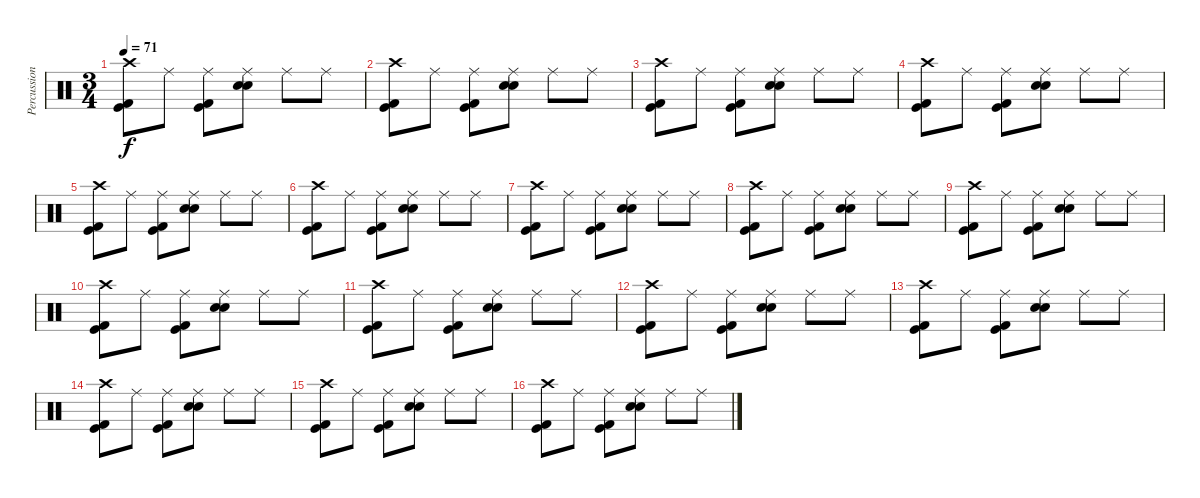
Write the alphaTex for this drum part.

\track ("Percussion" "Percussion") {instrument percussion}
\staff {score}
\articulation defaults
\ts (3 4)
\tempo 71
\clef neutral
\ks c
("Kick (hit)" "Kick (hit) 2" "Crash high (hit)").8{dy f} "Ride (middle)".8 ("Kick (hit) 2" "Kick (hit)" "Ride (middle)").8 ("Ride (middle)" "Electric Snare (hit)" "Snare (hit) 2").8 "Ride (middle)".8 "Ride (middle)".8 |
("Kick (hit)" "Kick (hit) 2" "Crash high (hit)").8 "Ride (middle)".8 ("Kick (hit) 2" "Kick (hit)" "Ride (middle)").8 ("Ride (middle)" "Electric Snare (hit)" "Snare (hit) 2").8 "Ride (middle)".8 "Ride (middle)".8 |
("Kick (hit)" "Kick (hit) 2" "Crash high (hit)").8 "Ride (middle)".8 ("Kick (hit) 2" "Kick (hit)" "Ride (middle)").8 ("Ride (middle)" "Electric Snare (hit)" "Snare (hit) 2").8 "Ride (middle)".8 "Ride (middle)".8 |
("Kick (hit)" "Kick (hit) 2" "Crash high (hit)").8 "Ride (middle)".8 ("Kick (hit) 2" "Kick (hit)" "Ride (middle)").8 ("Ride (middle)" "Electric Snare (hit)" "Snare (hit) 2").8 "Ride (middle)".8 "Ride (middle)".8 |
("Kick (hit)" "Kick (hit) 2" "Crash high (hit)").8 "Ride (middle)".8 ("Kick (hit) 2" "Kick (hit)" "Ride (middle)").8 ("Ride (middle)" "Electric Snare (hit)" "Snare (hit) 2").8 "Ride (middle)".8 "Ride (middle)".8 |
("Kick (hit)" "Kick (hit) 2" "Crash high (hit)").8 "Ride (middle)".8 ("Kick (hit) 2" "Kick (hit)" "Ride (middle)").8 ("Ride (middle)" "Electric Snare (hit)" "Snare (hit) 2").8 "Ride (middle)".8 "Ride (middle)".8 |
("Kick (hit)" "Kick (hit) 2" "Crash high (hit)").8 "Ride (middle)".8 ("Kick (hit) 2" "Kick (hit)" "Ride (middle)").8 ("Ride (middle)" "Electric Snare (hit)" "Snare (hit) 2").8 "Ride (middle)".8 "Ride (middle)".8 |
("Kick (hit)" "Kick (hit) 2" "Crash high (hit)").8 "Ride (middle)".8 ("Kick (hit) 2" "Kick (hit)" "Ride (middle)").8 ("Ride (middle)" "Electric Snare (hit)" "Snare (hit) 2").8 "Ride (middle)".8 "Ride (middle)".8 |
("Kick (hit)" "Kick (hit) 2" "Crash high (hit)").8 "Ride (middle)".8 ("Kick (hit) 2" "Kick (hit)" "Ride (middle)").8 ("Ride (middle)" "Electric Snare (hit)" "Snare (hit) 2").8 "Ride (middle)".8 "Ride (middle)".8 |
("Kick (hit)" "Kick (hit) 2" "Crash high (hit)").8 "Ride (middle)".8 ("Kick (hit) 2" "Kick (hit)" "Ride (middle)").8 ("Ride (middle)" "Electric Snare (hit)" "Snare (hit) 2").8 "Ride (middle)".8 "Ride (middle)".8 |
("Kick (hit)" "Kick (hit) 2" "Crash high (hit)").8 "Ride (middle)".8 ("Kick (hit) 2" "Kick (hit)" "Ride (middle)").8 ("Ride (middle)" "Electric Snare (hit)" "Snare (hit) 2").8 "Ride (middle)".8 "Ride (middle)".8 |
("Kick (hit)" "Kick (hit) 2" "Crash high (hit)").8 "Ride (middle)".8 ("Kick (hit) 2" "Kick (hit)" "Ride (middle)").8 ("Ride (middle)" "Electric Snare (hit)" "Snare (hit) 2").8 "Ride (middle)".8 "Ride (middle)".8 |
("Kick (hit)" "Kick (hit) 2" "Crash high (hit)").8 "Ride (middle)".8 ("Kick (hit) 2" "Kick (hit)" "Ride (middle)").8 ("Ride (middle)" "Electric Snare (hit)" "Snare (hit) 2").8 "Ride (middle)".8 "Ride (middle)".8 |
("Kick (hit)" "Kick (hit) 2" "Crash high (hit)").8 "Ride (middle)".8 ("Kick (hit) 2" "Kick (hit)" "Ride (middle)").8 ("Ride (middle)" "Electric Snare (hit)" "Snare (hit) 2").8 "Ride (middle)".8 "Ride (middle)".8 |
("Kick (hit)" "Kick (hit) 2" "Crash high (hit)").8 "Ride (middle)".8 ("Kick (hit) 2" "Kick (hit)" "Ride (middle)").8 ("Ride (middle)" "Electric Snare (hit)" "Snare (hit) 2").8 "Ride (middle)".8 "Ride (middle)".8 |
("Kick (hit)" "Kick (hit) 2" "Crash high (hit)").8 "Ride (middle)".8 ("Kick (hit) 2" "Kick (hit)" "Ride (middle)").8 ("Ride (middle)" "Electric Snare (hit)" "Snare (hit) 2").8 "Ride (middle)".8 "Ride (middle)".8
